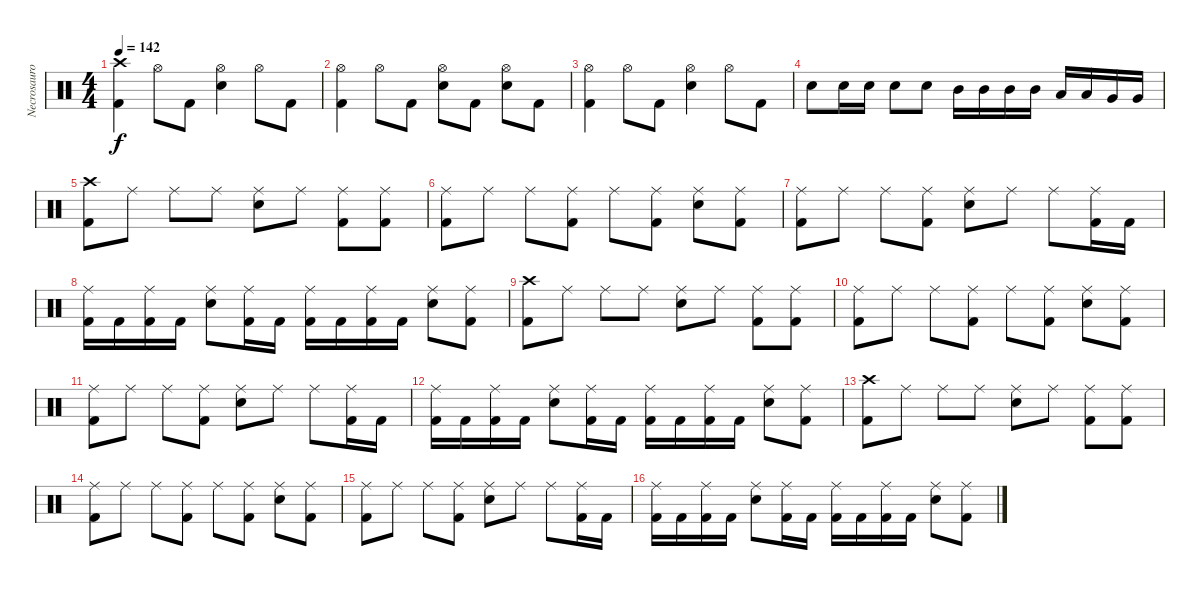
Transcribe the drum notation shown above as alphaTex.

\track ("Necrosauron" "Necrosauro") {instrument percussion}
\staff {score}
\articulation defaults
\ts (4 4)
\tempo 142
\clef neutral
\ks c
("Crash high (hit)" "Kick (hit) 2").4{dy f} "Hi-Hat (open)".8 "Kick (hit) 2".8 ("Hi-Hat (open)" "Snare (hit) 2").4 "Hi-Hat (open)".8 "Kick (hit) 2".8 |
("Hi-Hat (open)" "Kick (hit) 2").4 "Hi-Hat (open)".8 "Kick (hit) 2".8 ("Hi-Hat (open)" "Snare (hit) 2").8 "Kick (hit) 2".8 ("Hi-Hat (open)" "Snare (hit) 2").8 "Kick (hit) 2".8 |
("Hi-Hat (open)" "Kick (hit) 2").4 "Hi-Hat (open)".8 "Kick (hit) 2".8 ("Hi-Hat (open)" "Snare (hit) 2").4 "Hi-Hat (open)".8 "Kick (hit) 2".8 |
"Snare (hit) 2".8 "Snare (hit) 2".16 "Snare (hit) 2".16 "Snare (hit) 2".8 "Snare (hit) 2".8 "Mid Tom (hit)".16 "Mid Tom (hit)".16 "Mid Tom (hit)".16 "Mid Tom (hit)".16 "Low Tom (hit)".16 "Low Tom (hit)".16 "Very Low Tom (hit)".16 "Very Low Tom (hit)".16 |
("Crash high (hit)" "Kick (hit) 2").8 "Ride (middle)".8 "Ride (middle)".8 "Ride (middle)".8 ("Ride (middle)" "Snare (hit) 2").8 "Ride (middle)".8 ("Ride (middle)" "Kick (hit) 2").8 ("Ride (middle)" "Kick (hit) 2").8 |
("Ride (middle)" "Kick (hit) 2").8 "Ride (middle)".8 "Ride (middle)".8 ("Ride (middle)" "Kick (hit) 2").8 "Ride (middle)".8 ("Ride (middle)" "Kick (hit) 2").8 ("Ride (middle)" "Snare (hit) 2").8 ("Ride (middle)" "Kick (hit) 2").8 |
("Ride (middle)" "Kick (hit) 2").8 "Ride (middle)".8 "Ride (middle)".8 ("Ride (middle)" "Kick (hit) 2").8 ("Ride (middle)" "Snare (hit) 2").8 "Ride (middle)".8 "Ride (middle)".8 ("Ride (middle)" "Kick (hit) 2").16 "Kick (hit) 2".16 |
("Ride (middle)" "Kick (hit) 2").16 "Kick (hit) 2".16 ("Ride (middle)" "Kick (hit) 2").16 "Kick (hit) 2".16 ("Ride (middle)" "Snare (hit) 2").8 ("Ride (middle)" "Kick (hit) 2").16 "Kick (hit) 2".16 ("Ride (middle)" "Kick (hit) 2").16 "Kick (hit) 2".16 ("Ride (middle)" "Kick (hit) 2").16 "Kick (hit) 2".16 ("Ride (middle)" "Snare (hit) 2").8 ("Ride (middle)" "Kick (hit) 2").8 |
("Crash high (hit)" "Kick (hit) 2").8 "Ride (middle)".8 "Ride (middle)".8 "Ride (middle)".8 ("Ride (middle)" "Snare (hit) 2").8 "Ride (middle)".8 ("Ride (middle)" "Kick (hit) 2").8 ("Ride (middle)" "Kick (hit) 2").8 |
("Ride (middle)" "Kick (hit) 2").8 "Ride (middle)".8 "Ride (middle)".8 ("Ride (middle)" "Kick (hit) 2").8 "Ride (middle)".8 ("Ride (middle)" "Kick (hit) 2").8 ("Ride (middle)" "Snare (hit) 2").8 ("Ride (middle)" "Kick (hit) 2").8 |
("Ride (middle)" "Kick (hit) 2").8 "Ride (middle)".8 "Ride (middle)".8 ("Ride (middle)" "Kick (hit) 2").8 ("Ride (middle)" "Snare (hit) 2").8 "Ride (middle)".8 "Ride (middle)".8 ("Ride (middle)" "Kick (hit) 2").16 "Kick (hit) 2".16 |
("Ride (middle)" "Kick (hit) 2").16 "Kick (hit) 2".16 ("Ride (middle)" "Kick (hit) 2").16 "Kick (hit) 2".16 ("Ride (middle)" "Snare (hit) 2").8 ("Ride (middle)" "Kick (hit) 2").16 "Kick (hit) 2".16 ("Ride (middle)" "Kick (hit) 2").16 "Kick (hit) 2".16 ("Ride (middle)" "Kick (hit) 2").16 "Kick (hit) 2".16 ("Ride (middle)" "Snare (hit) 2").8 ("Ride (middle)" "Kick (hit) 2").8 |
("Crash high (hit)" "Kick (hit) 2").8 "Ride (middle)".8 "Ride (middle)".8 "Ride (middle)".8 ("Ride (middle)" "Snare (hit) 2").8 "Ride (middle)".8 ("Ride (middle)" "Kick (hit) 2").8 ("Ride (middle)" "Kick (hit) 2").8 |
("Ride (middle)" "Kick (hit) 2").8 "Ride (middle)".8 "Ride (middle)".8 ("Ride (middle)" "Kick (hit) 2").8 "Ride (middle)".8 ("Ride (middle)" "Kick (hit) 2").8 ("Ride (middle)" "Snare (hit) 2").8 ("Ride (middle)" "Kick (hit) 2").8 |
("Ride (middle)" "Kick (hit) 2").8 "Ride (middle)".8 "Ride (middle)".8 ("Ride (middle)" "Kick (hit) 2").8 ("Ride (middle)" "Snare (hit) 2").8 "Ride (middle)".8 "Ride (middle)".8 ("Ride (middle)" "Kick (hit) 2").16 "Kick (hit) 2".16 |
("Ride (middle)" "Kick (hit) 2").16 "Kick (hit) 2".16 ("Ride (middle)" "Kick (hit) 2").16 "Kick (hit) 2".16 ("Ride (middle)" "Snare (hit) 2").8 ("Ride (middle)" "Kick (hit) 2").16 "Kick (hit) 2".16 ("Ride (middle)" "Kick (hit) 2").16 "Kick (hit) 2".16 ("Ride (middle)" "Kick (hit) 2").16 "Kick (hit) 2".16 ("Ride (middle)" "Snare (hit) 2").8 ("Ride (middle)" "Kick (hit) 2").8
